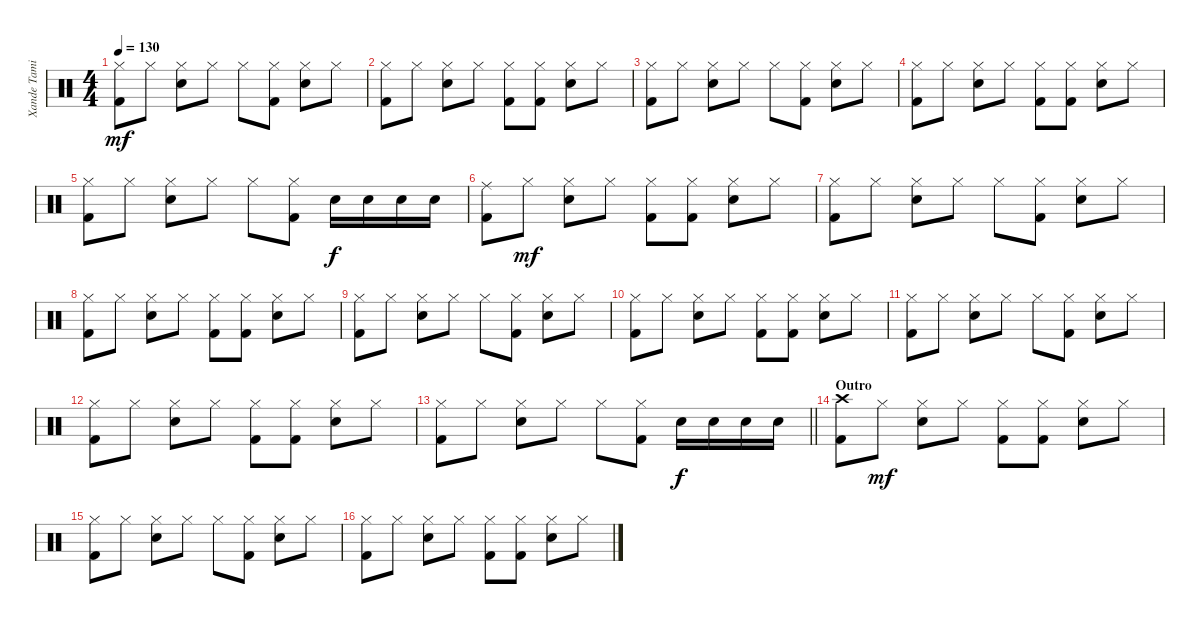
\track ("Xande Tamietti" "Xande Tami") {instrument percussion}
\staff {score}
\articulation defaults
\ts (4 4)
\tempo 130
\clef neutral
\ks c
("Hi-Hat (closed)" "Kick (hit) 2").8{dy mf} "Hi-Hat (closed)".8 ("Hi-Hat (closed)" "Electric Snare (hit)").8 "Hi-Hat (closed)".8 "Hi-Hat (closed)".8 ("Hi-Hat (closed)" "Kick (hit) 2").8 ("Hi-Hat (closed)" "Electric Snare (hit)").8 "Hi-Hat (closed)".8 |
("Hi-Hat (closed)" "Kick (hit) 2").8 "Hi-Hat (closed)".8 ("Hi-Hat (closed)" "Electric Snare (hit)").8 "Hi-Hat (closed)".8 ("Hi-Hat (closed)" "Kick (hit) 2").8 ("Hi-Hat (closed)" "Kick (hit) 2").8 ("Hi-Hat (closed)" "Electric Snare (hit)").8 "Hi-Hat (closed)".8 |
("Hi-Hat (closed)" "Kick (hit) 2").8 "Hi-Hat (closed)".8 ("Hi-Hat (closed)" "Electric Snare (hit)").8 "Hi-Hat (closed)".8 "Hi-Hat (closed)".8 ("Hi-Hat (closed)" "Kick (hit) 2").8 ("Hi-Hat (closed)" "Electric Snare (hit)").8 "Hi-Hat (closed)".8 |
("Hi-Hat (closed)" "Kick (hit) 2").8 "Hi-Hat (closed)".8 ("Hi-Hat (closed)" "Electric Snare (hit)").8 "Hi-Hat (closed)".8 ("Hi-Hat (closed)" "Kick (hit) 2").8 ("Hi-Hat (closed)" "Kick (hit) 2").8 ("Hi-Hat (closed)" "Electric Snare (hit)").8 "Hi-Hat (closed)".8 |
("Hi-Hat (closed)" "Kick (hit) 2").8 "Hi-Hat (closed)".8 ("Hi-Hat (closed)" "Electric Snare (hit)").8 "Hi-Hat (closed)".8 "Hi-Hat (closed)".8 ("Hi-Hat (closed)" "Kick (hit) 2").8 "Electric Snare (hit)".16{dy f} "Electric Snare (hit)".16 "Electric Snare (hit)".16 "Electric Snare (hit)".16 |
("Ride (middle)" "Kick (hit) 2").8 "Hi-Hat (closed)".8{dy mf} ("Hi-Hat (closed)" "Electric Snare (hit)").8 "Hi-Hat (closed)".8 ("Hi-Hat (closed)" "Kick (hit) 2").8 ("Hi-Hat (closed)" "Kick (hit) 2").8 ("Hi-Hat (closed)" "Electric Snare (hit)").8 "Hi-Hat (closed)".8 |
("Hi-Hat (closed)" "Kick (hit) 2").8 "Hi-Hat (closed)".8 ("Hi-Hat (closed)" "Electric Snare (hit)").8 "Hi-Hat (closed)".8 "Hi-Hat (closed)".8 ("Hi-Hat (closed)" "Kick (hit) 2").8 ("Hi-Hat (closed)" "Electric Snare (hit)").8 "Hi-Hat (closed)".8 |
("Hi-Hat (closed)" "Kick (hit) 2").8 "Hi-Hat (closed)".8 ("Hi-Hat (closed)" "Electric Snare (hit)").8 "Hi-Hat (closed)".8 ("Hi-Hat (closed)" "Kick (hit) 2").8 ("Hi-Hat (closed)" "Kick (hit) 2").8 ("Hi-Hat (closed)" "Electric Snare (hit)").8 "Hi-Hat (closed)".8 |
("Hi-Hat (closed)" "Kick (hit) 2").8 "Hi-Hat (closed)".8 ("Hi-Hat (closed)" "Electric Snare (hit)").8 "Hi-Hat (closed)".8 "Hi-Hat (closed)".8 ("Hi-Hat (closed)" "Kick (hit) 2").8 ("Hi-Hat (closed)" "Electric Snare (hit)").8 "Hi-Hat (closed)".8 |
("Hi-Hat (closed)" "Kick (hit) 2").8 "Hi-Hat (closed)".8 ("Hi-Hat (closed)" "Electric Snare (hit)").8 "Hi-Hat (closed)".8 ("Hi-Hat (closed)" "Kick (hit) 2").8 ("Hi-Hat (closed)" "Kick (hit) 2").8 ("Hi-Hat (closed)" "Electric Snare (hit)").8 "Hi-Hat (closed)".8 |
("Hi-Hat (closed)" "Kick (hit) 2").8 "Hi-Hat (closed)".8 ("Hi-Hat (closed)" "Electric Snare (hit)").8 "Hi-Hat (closed)".8 "Hi-Hat (closed)".8 ("Hi-Hat (closed)" "Kick (hit) 2").8 ("Hi-Hat (closed)" "Electric Snare (hit)").8 "Hi-Hat (closed)".8 |
("Hi-Hat (closed)" "Kick (hit) 2").8 "Hi-Hat (closed)".8 ("Hi-Hat (closed)" "Electric Snare (hit)").8 "Hi-Hat (closed)".8 ("Hi-Hat (closed)" "Kick (hit) 2").8 ("Hi-Hat (closed)" "Kick (hit) 2").8 ("Hi-Hat (closed)" "Electric Snare (hit)").8 "Hi-Hat (closed)".8 |
\barLineRight lightlight
("Hi-Hat (closed)" "Kick (hit) 2").8 "Hi-Hat (closed)".8 ("Hi-Hat (closed)" "Electric Snare (hit)").8 "Hi-Hat (closed)".8 "Hi-Hat (closed)".8 ("Hi-Hat (closed)" "Kick (hit) 2").8 "Electric Snare (hit)".16{dy f} "Electric Snare (hit)".16 "Electric Snare (hit)".16 "Electric Snare (hit)".16 |
\section ("" "Outro")
("Crash high (hit)" "Kick (hit) 2").8 "Hi-Hat (closed)".8{dy mf} ("Hi-Hat (closed)" "Electric Snare (hit)").8 "Hi-Hat (closed)".8 ("Hi-Hat (closed)" "Kick (hit) 2").8 ("Hi-Hat (closed)" "Kick (hit) 2").8 ("Hi-Hat (closed)" "Electric Snare (hit)").8 "Hi-Hat (closed)".8 |
("Hi-Hat (closed)" "Kick (hit) 2").8 "Hi-Hat (closed)".8 ("Hi-Hat (closed)" "Electric Snare (hit)").8 "Hi-Hat (closed)".8 "Hi-Hat (closed)".8 ("Hi-Hat (closed)" "Kick (hit) 2").8 ("Hi-Hat (closed)" "Electric Snare (hit)").8 "Hi-Hat (closed)".8 |
("Hi-Hat (closed)" "Kick (hit) 2").8 "Hi-Hat (closed)".8 ("Hi-Hat (closed)" "Electric Snare (hit)").8 "Hi-Hat (closed)".8 ("Hi-Hat (closed)" "Kick (hit) 2").8 ("Hi-Hat (closed)" "Kick (hit) 2").8 ("Hi-Hat (closed)" "Electric Snare (hit)").8 "Hi-Hat (closed)".8
